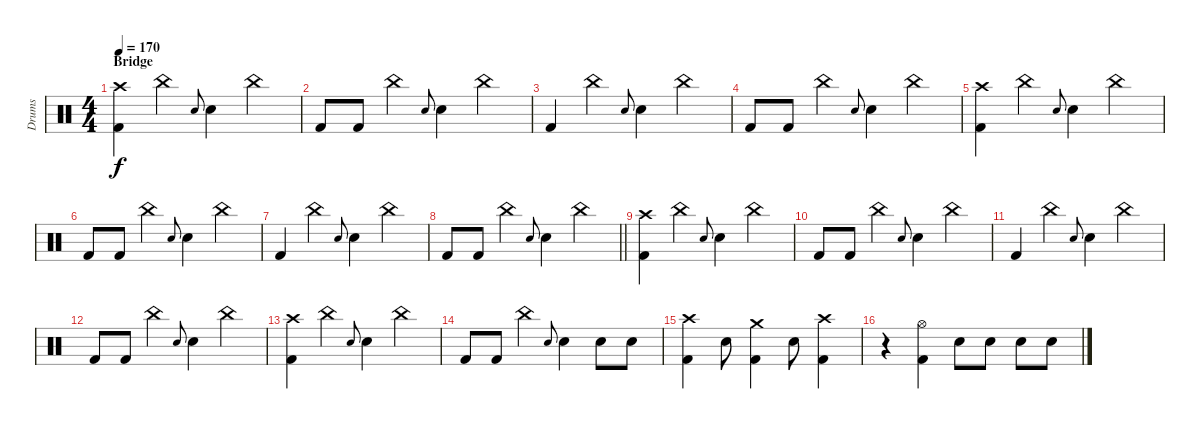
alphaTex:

\track ("Drums" "Drums") {instrument percussion}
\staff {score}
\articulation defaults
\ts (4 4)
\section ("" "Bridge")
\tempo 170
\clef neutral
\ks c
("Crash high (hit)" "Kick (hit) 2").4{dy f} "China (hit)".4 "Electric Snare (hit)".8{gr onbeat} "Electric Snare (hit)".4 "China (hit)".4 |
"Kick (hit) 2".8 "Kick (hit) 2".8 "China (hit)".4 "Electric Snare (hit)".8{gr onbeat} "Electric Snare (hit)".4 "China (hit)".4 |
"Kick (hit) 2".4 "China (hit)".4 "Electric Snare (hit)".8{gr onbeat} "Electric Snare (hit)".4 "China (hit)".4 |
"Kick (hit) 2".8 "Kick (hit) 2".8 "China (hit)".4 "Electric Snare (hit)".8{gr onbeat} "Electric Snare (hit)".4 "China (hit)".4 |
("Crash high (hit)" "Kick (hit) 2").4 "China (hit)".4 "Electric Snare (hit)".8{gr onbeat} "Electric Snare (hit)".4 "China (hit)".4 |
"Kick (hit) 2".8 "Kick (hit) 2".8 "China (hit)".4 "Electric Snare (hit)".8{gr onbeat} "Electric Snare (hit)".4 "China (hit)".4 |
"Kick (hit) 2".4 "China (hit)".4 "Electric Snare (hit)".8{gr onbeat} "Electric Snare (hit)".4 "China (hit)".4 |
\barLineRight lightlight "Kick (hit) 2".8 "Kick (hit) 2".8 "China (hit)".4 "Electric Snare (hit)".8{gr onbeat} "Electric Snare (hit)".4 "China (hit)".4
|
("Crash high (hit)" "Kick (hit) 2").4 "China (hit)".4 "Electric Snare (hit)".8{gr onbeat} "Electric Snare (hit)".4 "China (hit)".4 |
"Kick (hit) 2".8 "Kick (hit) 2".8 "China (hit)".4 "Electric Snare (hit)".8{gr onbeat} "Electric Snare (hit)".4 "China (hit)".4 |
"Kick (hit) 2".4 "China (hit)".4 "Electric Snare (hit)".8{gr onbeat} "Electric Snare (hit)".4 "China (hit)".4 |
"Kick (hit) 2".8 "Kick (hit) 2".8 "China (hit)".4 "Electric Snare (hit)".8{gr onbeat} "Electric Snare (hit)".4 "China (hit)".4 |
("Crash high (hit)" "Kick (hit) 2").4 "China (hit)".4 "Electric Snare (hit)".8{gr onbeat} "Electric Snare (hit)".4 "China (hit)".4 |
"Kick (hit) 2".8 "Kick (hit) 2".8 "China (hit)".4 "Electric Snare (hit)".8{gr onbeat} "Electric Snare (hit)".4 "Electric Snare (hit)".8 "Electric Snare (hit)".8 |
("Crash high (hit)" "Kick (hit) 2").4 "Electric Snare (hit)".8 ("Crash medium (hit)" "Kick (hit) 2").4 "Electric Snare (hit)".8 ("Crash high (hit)" "Kick (hit) 2").4 |
r.4 ("Hi-Hat (open)" "Kick (hit) 2").4 "Electric Snare (hit)".8 "Electric Snare (hit)".8 "Electric Snare (hit)".8 "Electric Snare (hit)".8
